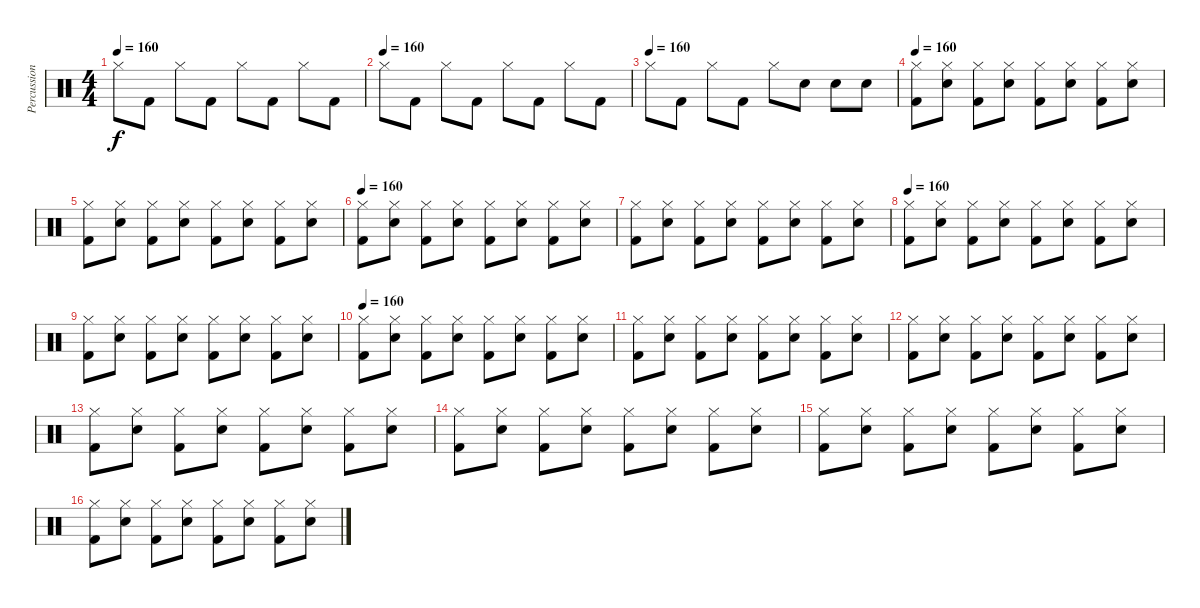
\track ("Percussions" "Percussion") {instrument percussion}
\staff {score}
\articulation defaults
\ts (4 4)
\tempo 160
\clef neutral
\ks c "Hi-Hat (closed)".8{dy f} "Kick (hit) 2".8 "Hi-Hat (closed)".8 "Kick (hit) 2".8 "Hi-Hat (closed)".8 "Kick (hit) 2".8 "Hi-Hat (closed)".8 "Kick (hit) 2".8
|
\tempo (160)
"Hi-Hat (closed)".8 "Kick (hit) 2".8 "Hi-Hat (closed)".8 "Kick (hit) 2".8 "Hi-Hat (closed)".8 "Kick (hit) 2".8 "Hi-Hat (closed)".8 "Kick (hit) 2".8 |
\tempo (160)
"Hi-Hat (closed)".8 "Kick (hit) 2".8 "Hi-Hat (closed)".8 "Kick (hit) 2".8 "Hi-Hat (closed)".8 "Electric Snare (hit)".8 "Electric Snare (hit)".8 "Electric Snare (hit)".8 |
\tempo 160
("Hi-Hat (closed)" "Kick (hit) 2").8 ("Hi-Hat (closed)" "Electric Snare (hit)").8 ("Hi-Hat (closed)" "Kick (hit) 2").8 ("Hi-Hat (closed)" "Electric Snare (hit)").8 ("Hi-Hat (closed)" "Kick (hit) 2").8 ("Hi-Hat (closed)" "Electric Snare (hit)").8 ("Hi-Hat (closed)" "Kick (hit) 2").8 ("Hi-Hat (closed)" "Electric Snare (hit)").8 |
("Hi-Hat (closed)" "Kick (hit) 2").8 ("Hi-Hat (closed)" "Electric Snare (hit)").8 ("Hi-Hat (closed)" "Kick (hit) 2").8 ("Hi-Hat (closed)" "Electric Snare (hit)").8 ("Hi-Hat (closed)" "Kick (hit) 2").8 ("Hi-Hat (closed)" "Electric Snare (hit)").8 ("Hi-Hat (closed)" "Kick (hit) 2").8 ("Hi-Hat (closed)" "Electric Snare (hit)").8 |
\tempo 160
("Hi-Hat (closed)" "Kick (hit) 2").8 ("Hi-Hat (closed)" "Electric Snare (hit)").8 ("Hi-Hat (closed)" "Kick (hit) 2").8 ("Hi-Hat (closed)" "Electric Snare (hit)").8 ("Hi-Hat (closed)" "Kick (hit) 2").8 ("Hi-Hat (closed)" "Electric Snare (hit)").8 ("Hi-Hat (closed)" "Kick (hit) 2").8 ("Hi-Hat (closed)" "Electric Snare (hit)").8 |
("Hi-Hat (closed)" "Kick (hit) 2").8 ("Hi-Hat (closed)" "Electric Snare (hit)").8 ("Hi-Hat (closed)" "Kick (hit) 2").8 ("Hi-Hat (closed)" "Electric Snare (hit)").8 ("Hi-Hat (closed)" "Kick (hit) 2").8 ("Hi-Hat (closed)" "Electric Snare (hit)").8 ("Hi-Hat (closed)" "Kick (hit) 2").8 ("Hi-Hat (closed)" "Electric Snare (hit)").8 |
\tempo 160
("Hi-Hat (closed)" "Kick (hit) 2").8 ("Hi-Hat (closed)" "Electric Snare (hit)").8 ("Hi-Hat (closed)" "Kick (hit) 2").8 ("Hi-Hat (closed)" "Electric Snare (hit)").8 ("Hi-Hat (closed)" "Kick (hit) 2").8 ("Hi-Hat (closed)" "Electric Snare (hit)").8 ("Hi-Hat (closed)" "Kick (hit) 2").8 ("Hi-Hat (closed)" "Electric Snare (hit)").8 |
("Hi-Hat (closed)" "Kick (hit) 2").8 ("Hi-Hat (closed)" "Electric Snare (hit)").8 ("Hi-Hat (closed)" "Kick (hit) 2").8 ("Hi-Hat (closed)" "Electric Snare (hit)").8 ("Hi-Hat (closed)" "Kick (hit) 2").8 ("Hi-Hat (closed)" "Electric Snare (hit)").8 ("Hi-Hat (closed)" "Kick (hit) 2").8 ("Hi-Hat (closed)" "Electric Snare (hit)").8 |
\tempo 160
("Hi-Hat (closed)" "Kick (hit) 2").8 ("Hi-Hat (closed)" "Electric Snare (hit)").8 ("Hi-Hat (closed)" "Kick (hit) 2").8 ("Hi-Hat (closed)" "Electric Snare (hit)").8 ("Hi-Hat (closed)" "Kick (hit) 2").8 ("Hi-Hat (closed)" "Electric Snare (hit)").8 ("Hi-Hat (closed)" "Kick (hit) 2").8 ("Hi-Hat (closed)" "Electric Snare (hit)").8 |
("Hi-Hat (closed)" "Kick (hit) 2").8 ("Hi-Hat (closed)" "Electric Snare (hit)").8 ("Hi-Hat (closed)" "Kick (hit) 2").8 ("Hi-Hat (closed)" "Electric Snare (hit)").8 ("Hi-Hat (closed)" "Kick (hit) 2").8 ("Hi-Hat (closed)" "Electric Snare (hit)").8 ("Hi-Hat (closed)" "Kick (hit) 2").8 ("Hi-Hat (closed)" "Electric Snare (hit)").8 |
("Hi-Hat (closed)" "Kick (hit) 2").8 ("Hi-Hat (closed)" "Electric Snare (hit)").8 ("Hi-Hat (closed)" "Kick (hit) 2").8 ("Hi-Hat (closed)" "Electric Snare (hit)").8 ("Hi-Hat (closed)" "Kick (hit) 2").8 ("Hi-Hat (closed)" "Electric Snare (hit)").8 ("Hi-Hat (closed)" "Kick (hit) 2").8 ("Hi-Hat (closed)" "Electric Snare (hit)").8 |
("Hi-Hat (closed)" "Kick (hit) 2").8 ("Hi-Hat (closed)" "Electric Snare (hit)").8 ("Hi-Hat (closed)" "Kick (hit) 2").8 ("Hi-Hat (closed)" "Electric Snare (hit)").8 ("Hi-Hat (closed)" "Kick (hit) 2").8 ("Hi-Hat (closed)" "Electric Snare (hit)").8 ("Hi-Hat (closed)" "Kick (hit) 2").8 ("Hi-Hat (closed)" "Electric Snare (hit)").8 |
("Hi-Hat (closed)" "Kick (hit) 2").8 ("Hi-Hat (closed)" "Electric Snare (hit)").8 ("Hi-Hat (closed)" "Kick (hit) 2").8 ("Hi-Hat (closed)" "Electric Snare (hit)").8 ("Hi-Hat (closed)" "Kick (hit) 2").8 ("Hi-Hat (closed)" "Electric Snare (hit)").8 ("Hi-Hat (closed)" "Kick (hit) 2").8 ("Hi-Hat (closed)" "Electric Snare (hit)").8 |
("Hi-Hat (closed)" "Kick (hit) 2").8 ("Hi-Hat (closed)" "Electric Snare (hit)").8 ("Hi-Hat (closed)" "Kick (hit) 2").8 ("Hi-Hat (closed)" "Electric Snare (hit)").8 ("Hi-Hat (closed)" "Kick (hit) 2").8 ("Hi-Hat (closed)" "Electric Snare (hit)").8 ("Hi-Hat (closed)" "Kick (hit) 2").8 ("Hi-Hat (closed)" "Electric Snare (hit)").8 |
("Hi-Hat (closed)" "Kick (hit) 2").8 ("Hi-Hat (closed)" "Electric Snare (hit)").8 ("Hi-Hat (closed)" "Kick (hit) 2").8 ("Hi-Hat (closed)" "Electric Snare (hit)").8 ("Hi-Hat (closed)" "Kick (hit) 2").8 ("Hi-Hat (closed)" "Electric Snare (hit)").8 ("Hi-Hat (closed)" "Kick (hit) 2").8 ("Hi-Hat (closed)" "Electric Snare (hit)").8
